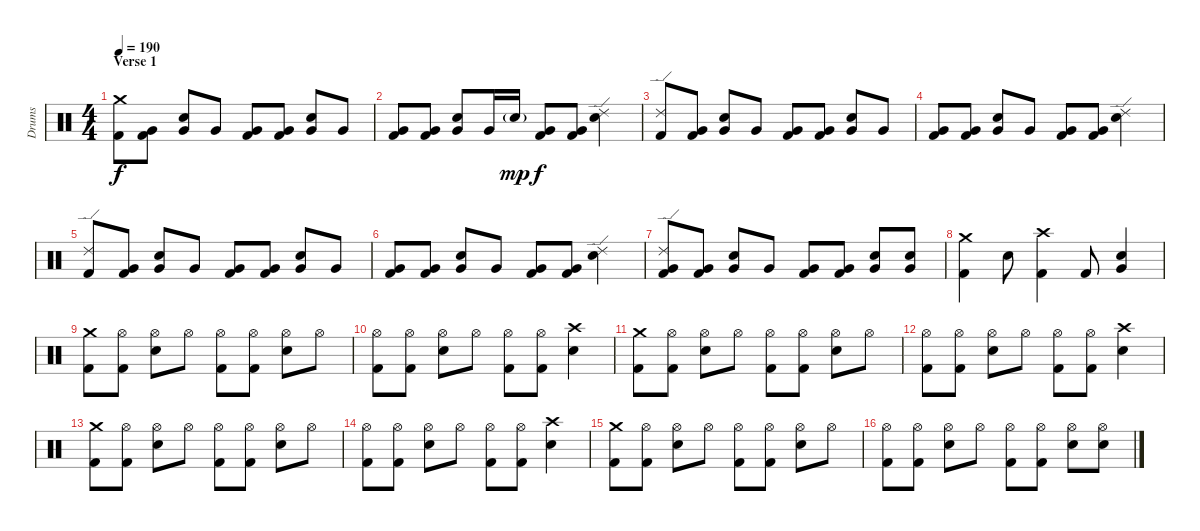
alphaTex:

\track ("Drums" "Drums") {instrument percussion}
\staff {score}
\articulation defaults
\ts (4 4)
\section ("" "Verse 1")
\tempo 190
\clef neutral
\ks c
("Crash medium (hit)" "Kick (hit) 2").8{dy f} ("Very Low Tom (hit)" "Kick (hit) 2").8 ("Electric Snare (hit)" "Very Low Tom (hit)").8 "Very Low Tom (hit)".8 ("Very Low Tom (hit)" "Kick (hit) 2").8 ("Very Low Tom (hit)" "Kick (hit) 2").8 ("Electric Snare (hit)" "Very Low Tom (hit)").8 "Very Low Tom (hit)".8 |
("Very Low Tom (hit)" "Kick (hit) 2").8 ("Very Low Tom (hit)" "Kick (hit) 2").8 ("Electric Snare (hit)" "Very Low Tom (hit)").8 "Very Low Tom (hit)".16 "Electric Snare (hit)"{g}.16{dy mp} ("Very Low Tom (hit)" "Kick (hit) 2").8{dy f} ("Very Low Tom (hit)" "Kick (hit) 2").8 ("Ride (edge) 2" "Electric Snare (hit)").4 |
("Ride (edge) 2" "Kick (hit) 2").8 ("Very Low Tom (hit)" "Kick (hit) 2").8 ("Electric Snare (hit)" "Very Low Tom (hit)").8 "Very Low Tom (hit)".8 ("Very Low Tom (hit)" "Kick (hit) 2").8 ("Very Low Tom (hit)" "Kick (hit) 2").8 ("Electric Snare (hit)" "Very Low Tom (hit)").8 "Very Low Tom (hit)".8 |
("Very Low Tom (hit)" "Kick (hit) 2").8 ("Very Low Tom (hit)" "Kick (hit) 2").8 ("Electric Snare (hit)" "Very Low Tom (hit)").8 "Very Low Tom (hit)".8 ("Very Low Tom (hit)" "Kick (hit) 2").8 ("Very Low Tom (hit)" "Kick (hit) 2").8 ("Ride (edge) 2" "Electric Snare (hit)").4 |
("Ride (edge) 2" "Kick (hit) 2").8 ("Very Low Tom (hit)" "Kick (hit) 2").8 ("Electric Snare (hit)" "Very Low Tom (hit)").8 "Very Low Tom (hit)".8 ("Very Low Tom (hit)" "Kick (hit) 2").8 ("Very Low Tom (hit)" "Kick (hit) 2").8 ("Electric Snare (hit)" "Very Low Tom (hit)").8 "Very Low Tom (hit)".8 |
("Very Low Tom (hit)" "Kick (hit) 2").8 ("Very Low Tom (hit)" "Kick (hit) 2").8 ("Electric Snare (hit)" "Very Low Tom (hit)").8 "Very Low Tom (hit)".8 ("Very Low Tom (hit)" "Kick (hit) 2").8 ("Very Low Tom (hit)" "Kick (hit) 2").8 ("Ride (edge) 2" "Electric Snare (hit)").4 |
("Ride (edge) 2" "Very Low Tom (hit)" "Kick (hit) 2").8 ("Very Low Tom (hit)" "Kick (hit) 2").8 ("Electric Snare (hit)" "Very Low Tom (hit)").8 "Very Low Tom (hit)".8 ("Very Low Tom (hit)" "Kick (hit) 2").8 ("Very Low Tom (hit)" "Kick (hit) 2").8 ("Electric Snare (hit)" "Very Low Tom (hit)").8 ("Electric Snare (hit)" "Very Low Tom (hit)").8 |
("Crash medium (hit)" "Kick (hit) 2").4 "Electric Snare (hit)".8 ("Crash high (hit)" "Kick (hit) 2").4 "Kick (hit) 2".8 ("Electric Snare (hit)" "Very Low Tom (hit)").4 |
("Crash medium (hit)" "Kick (hit) 2").8 ("Hi-Hat (open)" "Kick (hit) 2").8 ("Hi-Hat (open)" "Electric Snare (hit)").8 "Hi-Hat (open)".8 ("Hi-Hat (open)" "Kick (hit) 2").8 ("Hi-Hat (open)" "Kick (hit) 2").8 ("Hi-Hat (open)" "Electric Snare (hit)").8 "Hi-Hat (open)".8 |
("Hi-Hat (open)" "Kick (hit) 2").8 ("Hi-Hat (open)" "Kick (hit) 2").8 ("Hi-Hat (open)" "Electric Snare (hit)").8 "Hi-Hat (open)".8 ("Hi-Hat (open)" "Kick (hit) 2").8 ("Hi-Hat (open)" "Kick (hit) 2").8 ("Crash high (hit)" "Electric Snare (hit)").4 |
("Crash medium (hit)" "Kick (hit) 2").8 ("Hi-Hat (open)" "Kick (hit) 2").8 ("Hi-Hat (open)" "Electric Snare (hit)").8 "Hi-Hat (open)".8 ("Hi-Hat (open)" "Kick (hit) 2").8 ("Hi-Hat (open)" "Kick (hit) 2").8 ("Hi-Hat (open)" "Electric Snare (hit)").8 "Hi-Hat (open)".8 |
("Hi-Hat (open)" "Kick (hit) 2").8 ("Hi-Hat (open)" "Kick (hit) 2").8 ("Hi-Hat (open)" "Electric Snare (hit)").8 "Hi-Hat (open)".8 ("Hi-Hat (open)" "Kick (hit) 2").8 ("Hi-Hat (open)" "Kick (hit) 2").8 ("Crash high (hit)" "Electric Snare (hit)").4 |
("Crash medium (hit)" "Kick (hit) 2").8 ("Hi-Hat (open)" "Kick (hit) 2").8 ("Hi-Hat (open)" "Electric Snare (hit)").8 "Hi-Hat (open)".8 ("Hi-Hat (open)" "Kick (hit) 2").8 ("Hi-Hat (open)" "Kick (hit) 2").8 ("Hi-Hat (open)" "Electric Snare (hit)").8 "Hi-Hat (open)".8 |
("Hi-Hat (open)" "Kick (hit) 2").8 ("Hi-Hat (open)" "Kick (hit) 2").8 ("Hi-Hat (open)" "Electric Snare (hit)").8 "Hi-Hat (open)".8 ("Hi-Hat (open)" "Kick (hit) 2").8 ("Hi-Hat (open)" "Kick (hit) 2").8 ("Crash high (hit)" "Electric Snare (hit)").4 |
("Crash medium (hit)" "Kick (hit) 2").8 ("Hi-Hat (open)" "Kick (hit) 2").8 ("Hi-Hat (open)" "Electric Snare (hit)").8 "Hi-Hat (open)".8 ("Hi-Hat (open)" "Kick (hit) 2").8 ("Hi-Hat (open)" "Kick (hit) 2").8 ("Hi-Hat (open)" "Electric Snare (hit)").8 "Hi-Hat (open)".8 |
("Hi-Hat (open)" "Kick (hit) 2").8 ("Hi-Hat (open)" "Kick (hit) 2").8 ("Hi-Hat (open)" "Electric Snare (hit)").8 "Hi-Hat (open)".8 ("Hi-Hat (open)" "Kick (hit) 2").8 ("Hi-Hat (open)" "Kick (hit) 2").8 ("Hi-Hat (open)" "Electric Snare (hit)").8 ("Hi-Hat (open)" "Electric Snare (hit)").8
